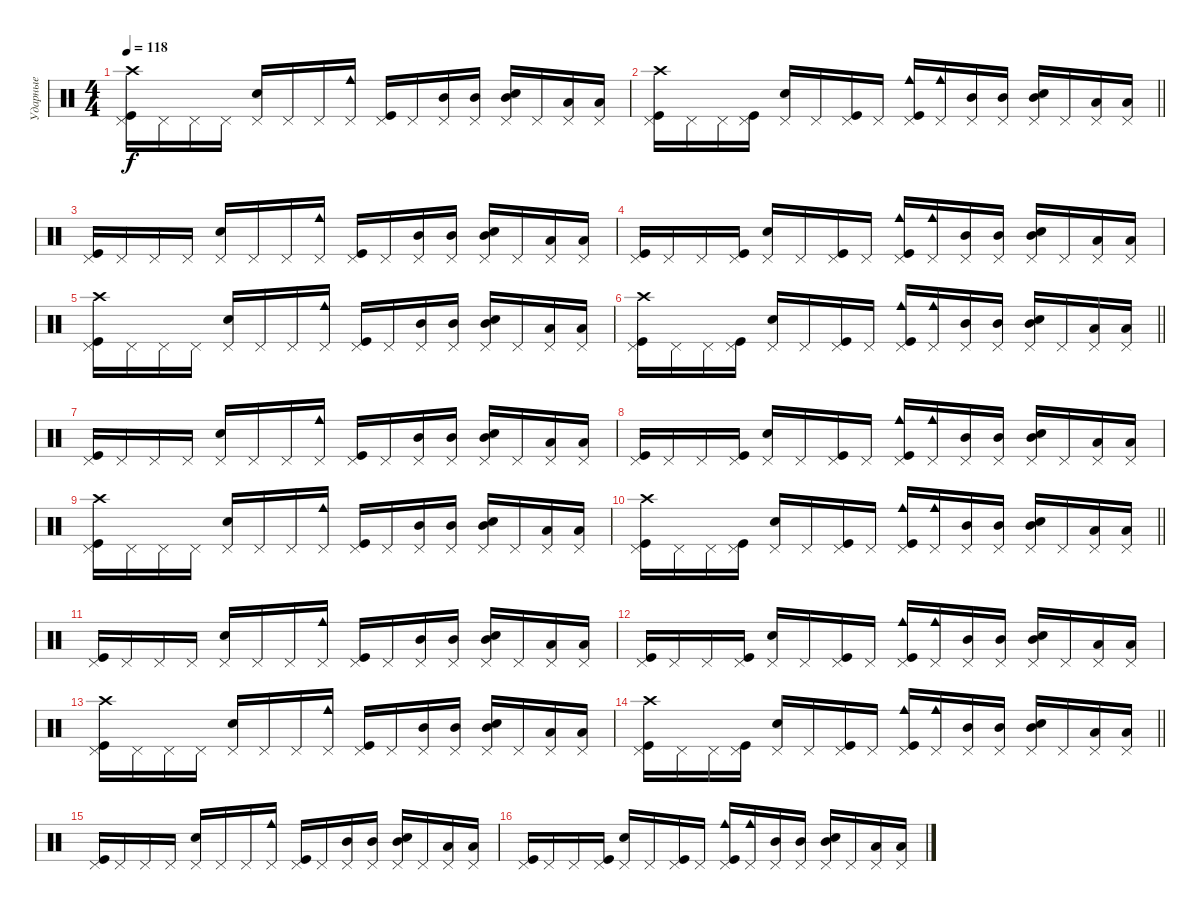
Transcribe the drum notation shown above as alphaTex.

\track ("Ударные" "Ударные") {instrument percussion}
\staff {score}
\articulation defaults
\ts (4 4)
\tempo 118
\clef neutral
\ks c
("Pedal Hi-Hat (hit)" "Kick (hit)" "Crash high (hit)").16{dy f} "Pedal Hi-Hat (hit)".16 "Pedal Hi-Hat (hit)".16 "Pedal Hi-Hat (hit)".16 ("Pedal Hi-Hat (hit)" "Snare (hit) 2").16 "Pedal Hi-Hat (hit)".16 "Pedal Hi-Hat (hit)".16 ("Pedal Hi-Hat (hit)" "Cowbell medium (hit)").16 ("Pedal Hi-Hat (hit)" "Kick (hit)").16 "Pedal Hi-Hat (hit)".16 ("Pedal Hi-Hat (hit)" "Mid Tom (hit)").16 ("Pedal Hi-Hat (hit)" "Mid Tom (hit)").16 ("Pedal Hi-Hat (hit)" "Mid Tom (hit)" "Snare (hit) 2").16 "Pedal Hi-Hat (hit)".16 ("Pedal Hi-Hat (hit)" "Low Tom (hit)").16 ("Pedal Hi-Hat (hit)" "Low Tom (hit)").16 |
\barLineRight lightlight
("Pedal Hi-Hat (hit)" "Kick (hit)" "Crash high (hit)").16 "Pedal Hi-Hat (hit)".16 "Pedal Hi-Hat (hit)".16 ("Pedal Hi-Hat (hit)" "Kick (hit)").16 ("Pedal Hi-Hat (hit)" "Snare (hit) 2").16 "Pedal Hi-Hat (hit)".16 ("Pedal Hi-Hat (hit)" "Kick (hit)").16 "Pedal Hi-Hat (hit)".16 ("Pedal Hi-Hat (hit)" "Kick (hit)" "Cowbell medium (hit)").16 ("Pedal Hi-Hat (hit)" "Cowbell medium (hit)").16 ("Pedal Hi-Hat (hit)" "Mid Tom (hit)").16 ("Pedal Hi-Hat (hit)" "Mid Tom (hit)").16 ("Pedal Hi-Hat (hit)" "Mid Tom (hit)" "Snare (hit) 2").16 "Pedal Hi-Hat (hit)".16 ("Pedal Hi-Hat (hit)" "Low Tom (hit)").16 ("Pedal Hi-Hat (hit)" "Low Tom (hit)").16 |
("Pedal Hi-Hat (hit)" "Kick (hit)").16 "Pedal Hi-Hat (hit)".16 "Pedal Hi-Hat (hit)".16 "Pedal Hi-Hat (hit)".16 ("Pedal Hi-Hat (hit)" "Snare (hit) 2").16 "Pedal Hi-Hat (hit)".16 "Pedal Hi-Hat (hit)".16 ("Pedal Hi-Hat (hit)" "Cowbell medium (hit)").16 ("Pedal Hi-Hat (hit)" "Kick (hit)").16 "Pedal Hi-Hat (hit)".16 ("Pedal Hi-Hat (hit)" "Mid Tom (hit)").16 ("Pedal Hi-Hat (hit)" "Mid Tom (hit)").16 ("Pedal Hi-Hat (hit)" "Mid Tom (hit)" "Snare (hit) 2").16 "Pedal Hi-Hat (hit)".16 ("Pedal Hi-Hat (hit)" "Low Tom (hit)").16 ("Pedal Hi-Hat (hit)" "Low Tom (hit)").16 |
("Pedal Hi-Hat (hit)" "Kick (hit)").16 "Pedal Hi-Hat (hit)".16 "Pedal Hi-Hat (hit)".16 ("Pedal Hi-Hat (hit)" "Kick (hit)").16 ("Pedal Hi-Hat (hit)" "Snare (hit) 2").16 "Pedal Hi-Hat (hit)".16 ("Pedal Hi-Hat (hit)" "Kick (hit)").16 "Pedal Hi-Hat (hit)".16 ("Pedal Hi-Hat (hit)" "Kick (hit)" "Cowbell medium (hit)").16 ("Pedal Hi-Hat (hit)" "Cowbell medium (hit)").16 ("Pedal Hi-Hat (hit)" "Mid Tom (hit)").16 ("Pedal Hi-Hat (hit)" "Mid Tom (hit)").16 ("Pedal Hi-Hat (hit)" "Mid Tom (hit)" "Snare (hit) 2").16 "Pedal Hi-Hat (hit)".16 ("Pedal Hi-Hat (hit)" "Low Tom (hit)").16 ("Pedal Hi-Hat (hit)" "Low Tom (hit)").16 |
("Pedal Hi-Hat (hit)" "Kick (hit)" "Crash high (hit)").16 "Pedal Hi-Hat (hit)".16 "Pedal Hi-Hat (hit)".16 "Pedal Hi-Hat (hit)".16 ("Pedal Hi-Hat (hit)" "Snare (hit) 2").16 "Pedal Hi-Hat (hit)".16 "Pedal Hi-Hat (hit)".16 ("Pedal Hi-Hat (hit)" "Cowbell medium (hit)").16 ("Pedal Hi-Hat (hit)" "Kick (hit)").16 "Pedal Hi-Hat (hit)".16 ("Pedal Hi-Hat (hit)" "Mid Tom (hit)").16 ("Pedal Hi-Hat (hit)" "Mid Tom (hit)").16 ("Pedal Hi-Hat (hit)" "Mid Tom (hit)" "Snare (hit) 2").16 "Pedal Hi-Hat (hit)".16 ("Pedal Hi-Hat (hit)" "Low Tom (hit)").16 ("Pedal Hi-Hat (hit)" "Low Tom (hit)").16 |
\barLineRight lightlight
("Pedal Hi-Hat (hit)" "Kick (hit)" "Crash high (hit)").16 "Pedal Hi-Hat (hit)".16 "Pedal Hi-Hat (hit)".16 ("Pedal Hi-Hat (hit)" "Kick (hit)").16 ("Pedal Hi-Hat (hit)" "Snare (hit) 2").16 "Pedal Hi-Hat (hit)".16 ("Pedal Hi-Hat (hit)" "Kick (hit)").16 "Pedal Hi-Hat (hit)".16 ("Pedal Hi-Hat (hit)" "Kick (hit)" "Cowbell medium (hit)").16 ("Pedal Hi-Hat (hit)" "Cowbell medium (hit)").16 ("Pedal Hi-Hat (hit)" "Mid Tom (hit)").16 ("Pedal Hi-Hat (hit)" "Mid Tom (hit)").16 ("Pedal Hi-Hat (hit)" "Mid Tom (hit)" "Snare (hit) 2").16 "Pedal Hi-Hat (hit)".16 ("Pedal Hi-Hat (hit)" "Low Tom (hit)").16 ("Pedal Hi-Hat (hit)" "Low Tom (hit)").16 |
("Pedal Hi-Hat (hit)" "Kick (hit)").16 "Pedal Hi-Hat (hit)".16 "Pedal Hi-Hat (hit)".16 "Pedal Hi-Hat (hit)".16 ("Pedal Hi-Hat (hit)" "Snare (hit) 2").16 "Pedal Hi-Hat (hit)".16 "Pedal Hi-Hat (hit)".16 ("Pedal Hi-Hat (hit)" "Cowbell medium (hit)").16 ("Pedal Hi-Hat (hit)" "Kick (hit)").16 "Pedal Hi-Hat (hit)".16 ("Pedal Hi-Hat (hit)" "Mid Tom (hit)").16 ("Pedal Hi-Hat (hit)" "Mid Tom (hit)").16 ("Pedal Hi-Hat (hit)" "Mid Tom (hit)" "Snare (hit) 2").16 "Pedal Hi-Hat (hit)".16 ("Pedal Hi-Hat (hit)" "Low Tom (hit)").16 ("Pedal Hi-Hat (hit)" "Low Tom (hit)").16 |
("Pedal Hi-Hat (hit)" "Kick (hit)").16 "Pedal Hi-Hat (hit)".16 "Pedal Hi-Hat (hit)".16 ("Pedal Hi-Hat (hit)" "Kick (hit)").16 ("Pedal Hi-Hat (hit)" "Snare (hit) 2").16 "Pedal Hi-Hat (hit)".16 ("Pedal Hi-Hat (hit)" "Kick (hit)").16 "Pedal Hi-Hat (hit)".16 ("Pedal Hi-Hat (hit)" "Kick (hit)" "Cowbell medium (hit)").16 ("Pedal Hi-Hat (hit)" "Cowbell medium (hit)").16 ("Pedal Hi-Hat (hit)" "Mid Tom (hit)").16 ("Pedal Hi-Hat (hit)" "Mid Tom (hit)").16 ("Pedal Hi-Hat (hit)" "Mid Tom (hit)" "Snare (hit) 2").16 "Pedal Hi-Hat (hit)".16 ("Pedal Hi-Hat (hit)" "Low Tom (hit)").16 ("Pedal Hi-Hat (hit)" "Low Tom (hit)").16 |
("Pedal Hi-Hat (hit)" "Kick (hit)" "Crash high (hit)").16 "Pedal Hi-Hat (hit)".16 "Pedal Hi-Hat (hit)".16 "Pedal Hi-Hat (hit)".16 ("Pedal Hi-Hat (hit)" "Snare (hit) 2").16 "Pedal Hi-Hat (hit)".16 "Pedal Hi-Hat (hit)".16 ("Pedal Hi-Hat (hit)" "Cowbell medium (hit)").16 ("Pedal Hi-Hat (hit)" "Kick (hit)").16 "Pedal Hi-Hat (hit)".16 ("Pedal Hi-Hat (hit)" "Mid Tom (hit)").16 ("Pedal Hi-Hat (hit)" "Mid Tom (hit)").16 ("Pedal Hi-Hat (hit)" "Mid Tom (hit)" "Snare (hit) 2").16 "Pedal Hi-Hat (hit)".16 ("Pedal Hi-Hat (hit)" "Low Tom (hit)").16 ("Pedal Hi-Hat (hit)" "Low Tom (hit)").16 |
\barLineRight lightlight
("Pedal Hi-Hat (hit)" "Kick (hit)" "Crash high (hit)").16 "Pedal Hi-Hat (hit)".16 "Pedal Hi-Hat (hit)".16 ("Pedal Hi-Hat (hit)" "Kick (hit)").16 ("Pedal Hi-Hat (hit)" "Snare (hit) 2").16 "Pedal Hi-Hat (hit)".16 ("Pedal Hi-Hat (hit)" "Kick (hit)").16 "Pedal Hi-Hat (hit)".16 ("Pedal Hi-Hat (hit)" "Kick (hit)" "Cowbell medium (hit)").16 ("Pedal Hi-Hat (hit)" "Cowbell medium (hit)").16 ("Pedal Hi-Hat (hit)" "Mid Tom (hit)").16 ("Pedal Hi-Hat (hit)" "Mid Tom (hit)").16 ("Pedal Hi-Hat (hit)" "Mid Tom (hit)" "Snare (hit) 2").16 "Pedal Hi-Hat (hit)".16 ("Pedal Hi-Hat (hit)" "Low Tom (hit)").16 ("Pedal Hi-Hat (hit)" "Low Tom (hit)").16 |
("Pedal Hi-Hat (hit)" "Kick (hit)").16 "Pedal Hi-Hat (hit)".16 "Pedal Hi-Hat (hit)".16 "Pedal Hi-Hat (hit)".16 ("Pedal Hi-Hat (hit)" "Snare (hit) 2").16 "Pedal Hi-Hat (hit)".16 "Pedal Hi-Hat (hit)".16 ("Pedal Hi-Hat (hit)" "Cowbell medium (hit)").16 ("Pedal Hi-Hat (hit)" "Kick (hit)").16 "Pedal Hi-Hat (hit)".16 ("Pedal Hi-Hat (hit)" "Mid Tom (hit)").16 ("Pedal Hi-Hat (hit)" "Mid Tom (hit)").16 ("Pedal Hi-Hat (hit)" "Mid Tom (hit)" "Snare (hit) 2").16 "Pedal Hi-Hat (hit)".16 ("Pedal Hi-Hat (hit)" "Low Tom (hit)").16 ("Pedal Hi-Hat (hit)" "Low Tom (hit)").16 |
("Pedal Hi-Hat (hit)" "Kick (hit)").16 "Pedal Hi-Hat (hit)".16 "Pedal Hi-Hat (hit)".16 ("Pedal Hi-Hat (hit)" "Kick (hit)").16 ("Pedal Hi-Hat (hit)" "Snare (hit) 2").16 "Pedal Hi-Hat (hit)".16 ("Pedal Hi-Hat (hit)" "Kick (hit)").16 "Pedal Hi-Hat (hit)".16 ("Pedal Hi-Hat (hit)" "Kick (hit)" "Cowbell medium (hit)").16 ("Pedal Hi-Hat (hit)" "Cowbell medium (hit)").16 ("Pedal Hi-Hat (hit)" "Mid Tom (hit)").16 ("Pedal Hi-Hat (hit)" "Mid Tom (hit)").16 ("Pedal Hi-Hat (hit)" "Mid Tom (hit)" "Snare (hit) 2").16 "Pedal Hi-Hat (hit)".16 ("Pedal Hi-Hat (hit)" "Low Tom (hit)").16 ("Pedal Hi-Hat (hit)" "Low Tom (hit)").16 |
("Pedal Hi-Hat (hit)" "Kick (hit)" "Crash high (hit)").16 "Pedal Hi-Hat (hit)".16 "Pedal Hi-Hat (hit)".16 "Pedal Hi-Hat (hit)".16 ("Pedal Hi-Hat (hit)" "Snare (hit) 2").16 "Pedal Hi-Hat (hit)".16 "Pedal Hi-Hat (hit)".16 ("Pedal Hi-Hat (hit)" "Cowbell medium (hit)").16 ("Pedal Hi-Hat (hit)" "Kick (hit)").16 "Pedal Hi-Hat (hit)".16 ("Pedal Hi-Hat (hit)" "Mid Tom (hit)").16 ("Pedal Hi-Hat (hit)" "Mid Tom (hit)").16 ("Pedal Hi-Hat (hit)" "Mid Tom (hit)" "Snare (hit) 2").16 "Pedal Hi-Hat (hit)".16 ("Pedal Hi-Hat (hit)" "Low Tom (hit)").16 ("Pedal Hi-Hat (hit)" "Low Tom (hit)").16 |
\barLineRight lightlight
("Pedal Hi-Hat (hit)" "Kick (hit)" "Crash high (hit)").16 "Pedal Hi-Hat (hit)".16 "Pedal Hi-Hat (hit)".16 ("Pedal Hi-Hat (hit)" "Kick (hit)").16 ("Pedal Hi-Hat (hit)" "Snare (hit) 2").16 "Pedal Hi-Hat (hit)".16 ("Pedal Hi-Hat (hit)" "Kick (hit)").16 "Pedal Hi-Hat (hit)".16 ("Pedal Hi-Hat (hit)" "Kick (hit)" "Cowbell medium (hit)").16 ("Pedal Hi-Hat (hit)" "Cowbell medium (hit)").16 ("Pedal Hi-Hat (hit)" "Mid Tom (hit)").16 ("Pedal Hi-Hat (hit)" "Mid Tom (hit)").16 ("Pedal Hi-Hat (hit)" "Mid Tom (hit)" "Snare (hit) 2").16 "Pedal Hi-Hat (hit)".16 ("Pedal Hi-Hat (hit)" "Low Tom (hit)").16 ("Pedal Hi-Hat (hit)" "Low Tom (hit)").16 |
("Pedal Hi-Hat (hit)" "Kick (hit)").16 "Pedal Hi-Hat (hit)".16 "Pedal Hi-Hat (hit)".16 "Pedal Hi-Hat (hit)".16 ("Pedal Hi-Hat (hit)" "Snare (hit) 2").16 "Pedal Hi-Hat (hit)".16 "Pedal Hi-Hat (hit)".16 ("Pedal Hi-Hat (hit)" "Cowbell medium (hit)").16 ("Pedal Hi-Hat (hit)" "Kick (hit)").16 "Pedal Hi-Hat (hit)".16 ("Pedal Hi-Hat (hit)" "Mid Tom (hit)").16 ("Pedal Hi-Hat (hit)" "Mid Tom (hit)").16 ("Pedal Hi-Hat (hit)" "Mid Tom (hit)" "Snare (hit) 2").16 "Pedal Hi-Hat (hit)".16 ("Pedal Hi-Hat (hit)" "Low Tom (hit)").16 ("Pedal Hi-Hat (hit)" "Low Tom (hit)").16 |
("Pedal Hi-Hat (hit)" "Kick (hit)").16 "Pedal Hi-Hat (hit)".16 "Pedal Hi-Hat (hit)".16 ("Pedal Hi-Hat (hit)" "Kick (hit)").16 ("Pedal Hi-Hat (hit)" "Snare (hit) 2").16 "Pedal Hi-Hat (hit)".16 ("Pedal Hi-Hat (hit)" "Kick (hit)").16 "Pedal Hi-Hat (hit)".16 ("Pedal Hi-Hat (hit)" "Kick (hit)" "Cowbell medium (hit)").16 ("Pedal Hi-Hat (hit)" "Cowbell medium (hit)").16 ("Pedal Hi-Hat (hit)" "Mid Tom (hit)").16 ("Pedal Hi-Hat (hit)" "Mid Tom (hit)").16 ("Pedal Hi-Hat (hit)" "Mid Tom (hit)" "Snare (hit) 2").16 "Pedal Hi-Hat (hit)".16 ("Pedal Hi-Hat (hit)" "Low Tom (hit)").16 ("Pedal Hi-Hat (hit)" "Low Tom (hit)").16
